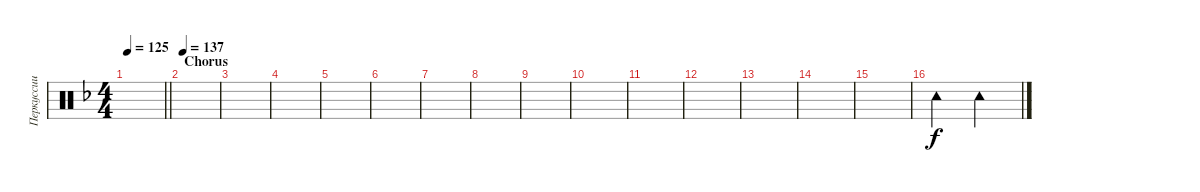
\track ("Перкуссии" "Перкуссии") {instrument percussion}
\staff {score}
\articulation defaults
\ts (4 4)
\tempo 125
\clef neutral
\barLineRight lightlight
\ks dminor
|
\section ("" "Chorus")
\tempo 137
|
|
|
|
|
|
|
|
|
|
|
|
|
|
"Tambourine (hit)".2 "Tambourine (hit)".2
